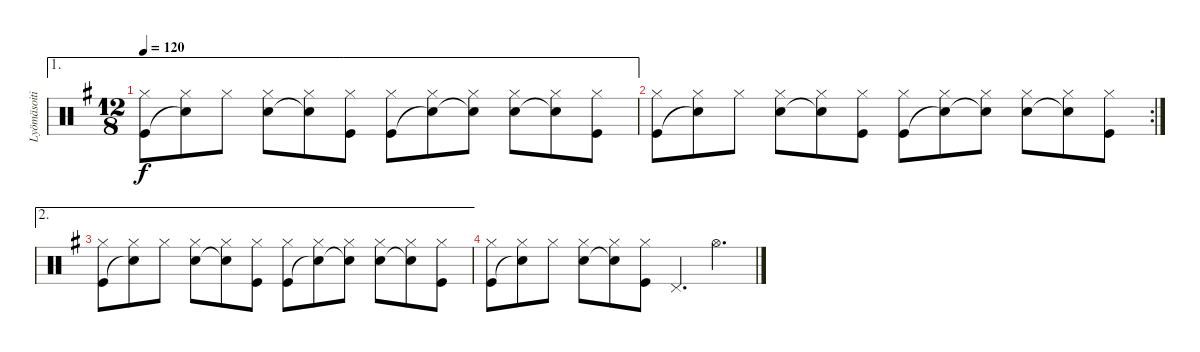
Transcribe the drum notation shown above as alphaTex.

\track ("Lyömäsoitin" "Lyömäsoiti") {instrument percussion}
\staff {score}
\articulation defaults
\ae 1
\ts (12 8)
\tempo 120
\clef neutral
\ks g
("Hi-Hat (closed)" "Kick (hit)").8{dy f} ("Hi-Hat (closed)" "Snare (hit)"{t}).8 "Hi-Hat (closed)".8 ("Hi-Hat (closed)" "Snare (hit) 2").8 ("Hi-Hat (closed)" "Snare (hit)"{t}).8 ("Hi-Hat (closed)" "Kick (hit)").8 ("Hi-Hat (closed)" "Kick (hit)").8 ("Hi-Hat (closed)" "Snare (hit)"{t}).8 ("Hi-Hat (closed)" "Snare (hit)"{t}).8 ("Hi-Hat (closed)" "Snare (hit) 2").8 ("Hi-Hat (closed)" "Snare (hit)"{t}).8 ("Hi-Hat (closed)" "Kick (hit)").8 |
\rc 2
("Hi-Hat (closed)" "Kick (hit)").8 ("Hi-Hat (closed)" "Snare (hit)"{t}).8 "Hi-Hat (closed)".8 ("Hi-Hat (closed)" "Snare (hit) 2").8 ("Hi-Hat (closed)" "Snare (hit)"{t}).8 ("Hi-Hat (closed)" "Kick (hit)").8 ("Hi-Hat (closed)" "Kick (hit)").8 ("Hi-Hat (closed)" "Snare (hit)"{t}).8 ("Hi-Hat (closed)" "Snare (hit)"{t}).8 ("Hi-Hat (closed)" "Snare (hit) 2").8 ("Hi-Hat (closed)" "Snare (hit)"{t}).8 ("Hi-Hat (closed)" "Kick (hit)").8 |
\ae 2
("Hi-Hat (closed)" "Kick (hit)").8 ("Hi-Hat (closed)" "Snare (hit)"{t}).8 "Hi-Hat (closed)".8 ("Hi-Hat (closed)" "Snare (hit) 2").8 ("Hi-Hat (closed)" "Snare (hit)"{t}).8 ("Hi-Hat (closed)" "Kick (hit)").8 ("Hi-Hat (closed)" "Kick (hit)").8 ("Hi-Hat (closed)" "Snare (hit)"{t}).8 ("Hi-Hat (closed)" "Snare (hit)"{t}).8 ("Hi-Hat (closed)" "Snare (hit) 2").8 ("Hi-Hat (closed)" "Snare (hit)"{t}).8 ("Hi-Hat (closed)" "Kick (hit)").8 |
("Hi-Hat (closed)" "Kick (hit)").8 ("Hi-Hat (closed)" "Snare (hit)"{t}).8 "Hi-Hat (closed)".8 ("Hi-Hat (closed)" "Snare (hit) 2").8 ("Hi-Hat (closed)" "Snare (hit)"{t}).8 ("Hi-Hat (closed)" "Kick (hit)").8 "Pedal Hi-Hat (hit)".4{d} "Hi-Hat (open)".4{d}
